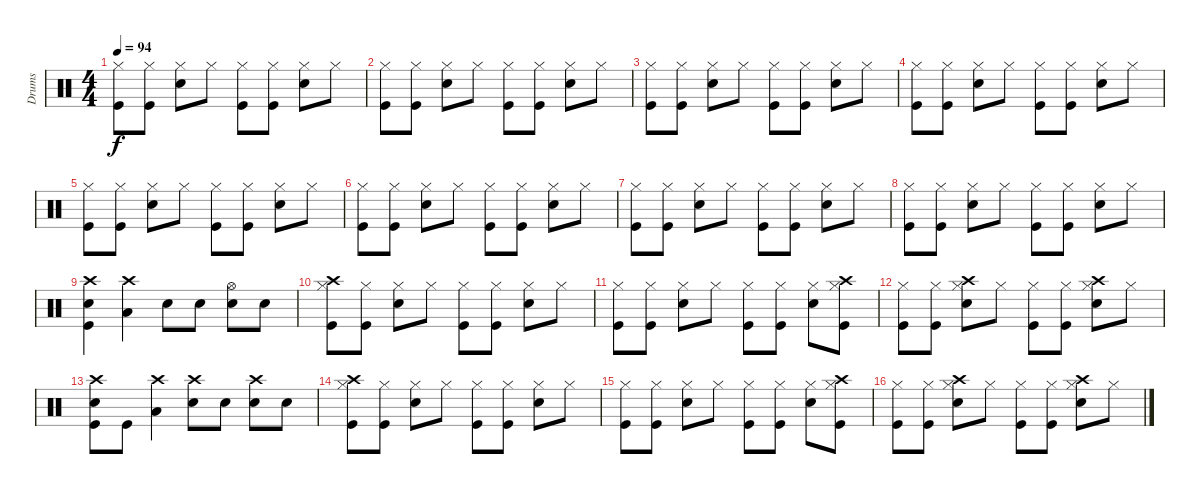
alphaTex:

\track ("Drums" "Drums") {instrument percussion}
\staff {score}
\articulation defaults
\ts (4 4)
\tempo 94
\clef neutral
\ks c
("Hi-Hat (closed)" "Kick (hit)").8{dy f} ("Hi-Hat (closed)" "Kick (hit)").8 ("Hi-Hat (closed)" "Snare (hit) 2").8 "Hi-Hat (closed)".8 ("Hi-Hat (closed)" "Kick (hit)").8 ("Hi-Hat (closed)" "Kick (hit)").8 ("Hi-Hat (closed)" "Snare (hit) 2").8 "Hi-Hat (closed)".8 |
("Hi-Hat (closed)" "Kick (hit)").8 ("Hi-Hat (closed)" "Kick (hit)").8 ("Hi-Hat (closed)" "Snare (hit) 2").8 "Hi-Hat (closed)".8 ("Hi-Hat (closed)" "Kick (hit)").8 ("Hi-Hat (closed)" "Kick (hit)").8 ("Hi-Hat (closed)" "Snare (hit) 2").8 "Hi-Hat (closed)".8 |
("Hi-Hat (closed)" "Kick (hit)").8 ("Hi-Hat (closed)" "Kick (hit)").8 ("Hi-Hat (closed)" "Snare (hit) 2").8 "Hi-Hat (closed)".8 ("Hi-Hat (closed)" "Kick (hit)").8 ("Hi-Hat (closed)" "Kick (hit)").8 ("Hi-Hat (closed)" "Snare (hit) 2").8 "Hi-Hat (closed)".8 |
("Hi-Hat (closed)" "Kick (hit)").8 ("Hi-Hat (closed)" "Kick (hit)").8 ("Hi-Hat (closed)" "Snare (hit) 2").8 "Hi-Hat (closed)".8 ("Hi-Hat (closed)" "Kick (hit)").8 ("Hi-Hat (closed)" "Kick (hit)").8 ("Hi-Hat (closed)" "Snare (hit) 2").8 "Hi-Hat (closed)".8 |
("Hi-Hat (closed)" "Kick (hit)").8 ("Hi-Hat (closed)" "Kick (hit)").8 ("Hi-Hat (closed)" "Snare (hit) 2").8 "Hi-Hat (closed)".8 ("Hi-Hat (closed)" "Kick (hit)").8 ("Hi-Hat (closed)" "Kick (hit)").8 ("Hi-Hat (closed)" "Snare (hit) 2").8 "Hi-Hat (closed)".8 |
("Hi-Hat (closed)" "Kick (hit)").8 ("Hi-Hat (closed)" "Kick (hit)").8 ("Hi-Hat (closed)" "Snare (hit) 2").8 "Hi-Hat (closed)".8 ("Hi-Hat (closed)" "Kick (hit)").8 ("Hi-Hat (closed)" "Kick (hit)").8 ("Hi-Hat (closed)" "Snare (hit) 2").8 "Hi-Hat (closed)".8 |
("Hi-Hat (closed)" "Kick (hit)").8 ("Hi-Hat (closed)" "Kick (hit)").8 ("Hi-Hat (closed)" "Snare (hit) 2").8 "Hi-Hat (closed)".8 ("Hi-Hat (closed)" "Kick (hit)").8 ("Hi-Hat (closed)" "Kick (hit)").8 ("Hi-Hat (closed)" "Snare (hit) 2").8 "Hi-Hat (closed)".8 |
("Hi-Hat (closed)" "Kick (hit)").8 ("Hi-Hat (closed)" "Kick (hit)").8 ("Hi-Hat (closed)" "Snare (hit) 2").8 "Hi-Hat (closed)".8 ("Hi-Hat (closed)" "Kick (hit)").8 ("Hi-Hat (closed)" "Kick (hit)").8 ("Hi-Hat (closed)" "Snare (hit) 2").8 "Hi-Hat (closed)".8 |
("Crash high (hit)" "Snare (hit) 2" "Kick (hit)").4 ("Crash high (hit)" "Low Tom (hit)").4 "Snare (hit) 2".8 "Snare (hit) 2".8 ("Hi-Hat (open)" "Snare (hit) 2").8 "Snare (hit) 2".8 |
("Crash high (hit)" "Hi-Hat (closed)" "Kick (hit)").8 ("Hi-Hat (closed)" "Kick (hit)").8 ("Hi-Hat (closed)" "Snare (hit) 2").8 "Hi-Hat (closed)".8 ("Hi-Hat (closed)" "Kick (hit)").8 ("Hi-Hat (closed)" "Kick (hit)").8 ("Hi-Hat (closed)" "Snare (hit) 2").8 "Hi-Hat (closed)".8 |
("Hi-Hat (closed)" "Kick (hit)").8 ("Hi-Hat (closed)" "Kick (hit)").8 ("Hi-Hat (closed)" "Snare (hit) 2").8 "Hi-Hat (closed)".8 ("Hi-Hat (closed)" "Kick (hit)").8 ("Hi-Hat (closed)" "Kick (hit)").8 ("Hi-Hat (closed)" "Snare (hit) 2").8 ("Crash high (hit)" "Hi-Hat (closed)" "Kick (hit)").8 |
("Hi-Hat (closed)" "Kick (hit)").8 ("Hi-Hat (closed)" "Kick (hit)").8 ("Crash high (hit)" "Hi-Hat (closed)" "Snare (hit) 2").8 "Hi-Hat (closed)".8 ("Hi-Hat (closed)" "Kick (hit)").8 ("Hi-Hat (closed)" "Kick (hit)").8 ("Crash high (hit)" "Hi-Hat (closed)" "Snare (hit) 2").8 "Hi-Hat (closed)".8 |
("Crash high (hit)" "Snare (hit) 2" "Kick (hit)").8 "Kick (hit)".8 ("Crash high (hit)" "Low Tom (hit)").4 ("Crash high (hit)" "Snare (hit) 2").8 "Snare (hit) 2".8 ("Crash high (hit)" "Snare (hit) 2").8 "Snare (hit) 2".8 |
("Crash high (hit)" "Hi-Hat (closed)" "Kick (hit)").8 ("Hi-Hat (closed)" "Kick (hit)").8 ("Hi-Hat (closed)" "Snare (hit) 2").8 "Hi-Hat (closed)".8 ("Hi-Hat (closed)" "Kick (hit)").8 ("Hi-Hat (closed)" "Kick (hit)").8 ("Hi-Hat (closed)" "Snare (hit) 2").8 "Hi-Hat (closed)".8 |
("Hi-Hat (closed)" "Kick (hit)").8 ("Hi-Hat (closed)" "Kick (hit)").8 ("Hi-Hat (closed)" "Snare (hit) 2").8 "Hi-Hat (closed)".8 ("Hi-Hat (closed)" "Kick (hit)").8 ("Hi-Hat (closed)" "Kick (hit)").8 ("Hi-Hat (closed)" "Snare (hit) 2").8 ("Crash high (hit)" "Hi-Hat (closed)" "Kick (hit)").8 |
("Hi-Hat (closed)" "Kick (hit)").8 ("Hi-Hat (closed)" "Kick (hit)").8 ("Crash high (hit)" "Hi-Hat (closed)" "Snare (hit) 2").8 "Hi-Hat (closed)".8 ("Hi-Hat (closed)" "Kick (hit)").8 ("Hi-Hat (closed)" "Kick (hit)").8 ("Crash high (hit)" "Hi-Hat (closed)" "Snare (hit) 2").8 "Hi-Hat (closed)".8
